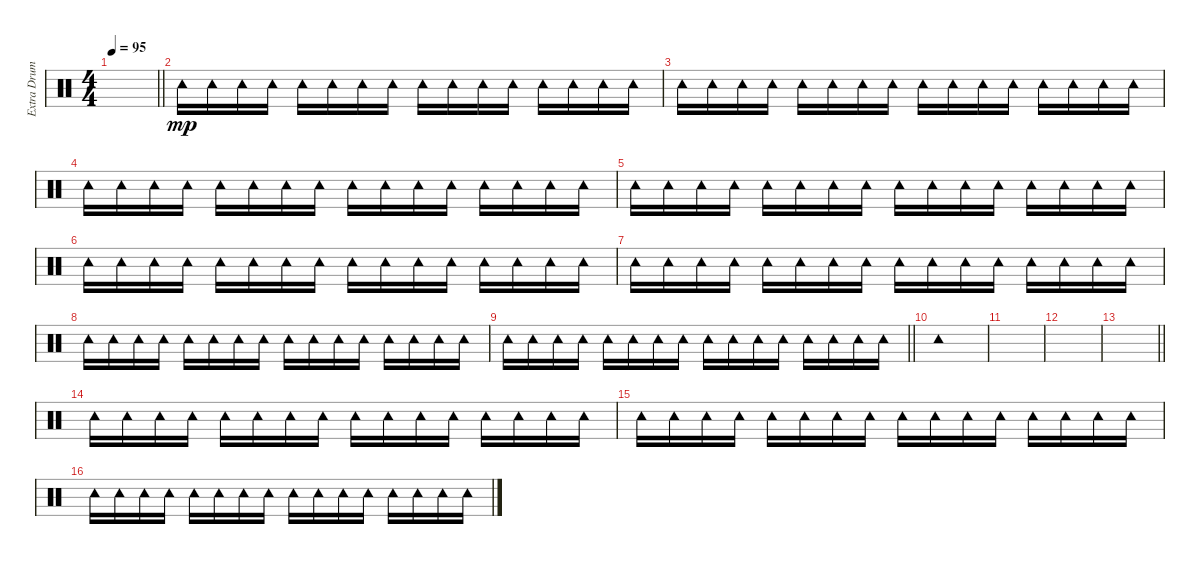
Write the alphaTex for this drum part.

\track ("Extra Drums" "Extra Drum") {instrument percussion}
\staff {score}
\articulation defaults
\ts (4 4)
\tempo 95
\clef neutral
\barLineRight lightlight
\ks c
|
"Tambourine (hit)".16{dy mp} "Tambourine (hit)".16 "Tambourine (hit)".16 "Tambourine (hit)".16 "Tambourine (hit)".16 "Tambourine (hit)".16 "Tambourine (hit)".16 "Tambourine (hit)".16 "Tambourine (hit)".16 "Tambourine (hit)".16 "Tambourine (hit)".16 "Tambourine (hit)".16 "Tambourine (hit)".16 "Tambourine (hit)".16 "Tambourine (hit)".16 "Tambourine (hit)".16 |
"Tambourine (hit)".16 "Tambourine (hit)".16 "Tambourine (hit)".16 "Tambourine (hit)".16 "Tambourine (hit)".16 "Tambourine (hit)".16 "Tambourine (hit)".16 "Tambourine (hit)".16 "Tambourine (hit)".16 "Tambourine (hit)".16 "Tambourine (hit)".16 "Tambourine (hit)".16 "Tambourine (hit)".16 "Tambourine (hit)".16 "Tambourine (hit)".16 "Tambourine (hit)".16 |
"Tambourine (hit)".16 "Tambourine (hit)".16 "Tambourine (hit)".16 "Tambourine (hit)".16 "Tambourine (hit)".16 "Tambourine (hit)".16 "Tambourine (hit)".16 "Tambourine (hit)".16 "Tambourine (hit)".16 "Tambourine (hit)".16 "Tambourine (hit)".16 "Tambourine (hit)".16 "Tambourine (hit)".16 "Tambourine (hit)".16 "Tambourine (hit)".16 "Tambourine (hit)".16 |
"Tambourine (hit)".16 "Tambourine (hit)".16 "Tambourine (hit)".16 "Tambourine (hit)".16 "Tambourine (hit)".16 "Tambourine (hit)".16 "Tambourine (hit)".16 "Tambourine (hit)".16 "Tambourine (hit)".16 "Tambourine (hit)".16 "Tambourine (hit)".16 "Tambourine (hit)".16 "Tambourine (hit)".16 "Tambourine (hit)".16 "Tambourine (hit)".16 "Tambourine (hit)".16 |
"Tambourine (hit)".16 "Tambourine (hit)".16 "Tambourine (hit)".16 "Tambourine (hit)".16 "Tambourine (hit)".16 "Tambourine (hit)".16 "Tambourine (hit)".16 "Tambourine (hit)".16 "Tambourine (hit)".16 "Tambourine (hit)".16 "Tambourine (hit)".16 "Tambourine (hit)".16 "Tambourine (hit)".16 "Tambourine (hit)".16 "Tambourine (hit)".16 "Tambourine (hit)".16 |
"Tambourine (hit)".16 "Tambourine (hit)".16 "Tambourine (hit)".16 "Tambourine (hit)".16 "Tambourine (hit)".16 "Tambourine (hit)".16 "Tambourine (hit)".16 "Tambourine (hit)".16 "Tambourine (hit)".16 "Tambourine (hit)".16 "Tambourine (hit)".16 "Tambourine (hit)".16 "Tambourine (hit)".16 "Tambourine (hit)".16 "Tambourine (hit)".16 "Tambourine (hit)".16 |
"Tambourine (hit)".16 "Tambourine (hit)".16 "Tambourine (hit)".16 "Tambourine (hit)".16 "Tambourine (hit)".16 "Tambourine (hit)".16 "Tambourine (hit)".16 "Tambourine (hit)".16 "Tambourine (hit)".16 "Tambourine (hit)".16 "Tambourine (hit)".16 "Tambourine (hit)".16 "Tambourine (hit)".16 "Tambourine (hit)".16 "Tambourine (hit)".16 "Tambourine (hit)".16 |
\barLineRight lightlight "Tambourine (hit)".16 "Tambourine (hit)".16 "Tambourine (hit)".16 "Tambourine (hit)".16 "Tambourine (hit)".16 "Tambourine (hit)".16 "Tambourine (hit)".16 "Tambourine (hit)".16 "Tambourine (hit)".16 "Tambourine (hit)".16 "Tambourine (hit)".16 "Tambourine (hit)".16 "Tambourine (hit)".16 "Tambourine (hit)".16 "Tambourine (hit)".16 "Tambourine (hit)".16
|
"Tambourine (hit)".1 |
|
|
\barLineRight lightlight
|
"Tambourine (hit)".16 "Tambourine (hit)".16 "Tambourine (hit)".16 "Tambourine (hit)".16 "Tambourine (hit)".16 "Tambourine (hit)".16 "Tambourine (hit)".16 "Tambourine (hit)".16 "Tambourine (hit)".16 "Tambourine (hit)".16 "Tambourine (hit)".16 "Tambourine (hit)".16 "Tambourine (hit)".16 "Tambourine (hit)".16 "Tambourine (hit)".16 "Tambourine (hit)".16 |
"Tambourine (hit)".16 "Tambourine (hit)".16 "Tambourine (hit)".16 "Tambourine (hit)".16 "Tambourine (hit)".16 "Tambourine (hit)".16 "Tambourine (hit)".16 "Tambourine (hit)".16 "Tambourine (hit)".16 "Tambourine (hit)".16 "Tambourine (hit)".16 "Tambourine (hit)".16 "Tambourine (hit)".16 "Tambourine (hit)".16 "Tambourine (hit)".16 "Tambourine (hit)".16 |
"Tambourine (hit)".16 "Tambourine (hit)".16 "Tambourine (hit)".16 "Tambourine (hit)".16 "Tambourine (hit)".16 "Tambourine (hit)".16 "Tambourine (hit)".16 "Tambourine (hit)".16 "Tambourine (hit)".16 "Tambourine (hit)".16 "Tambourine (hit)".16 "Tambourine (hit)".16 "Tambourine (hit)".16 "Tambourine (hit)".16 "Tambourine (hit)".16 "Tambourine (hit)".16
